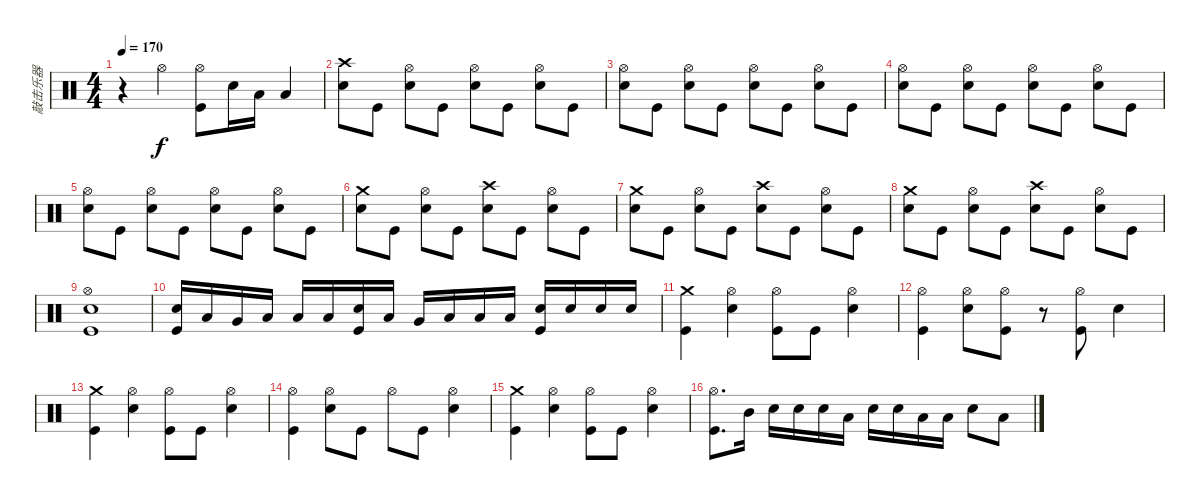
\track ("敲击乐器" "敲击乐器") {instrument percussion}
\staff {score}
\articulation defaults
\ts (4 4)
\tempo 170
\clef neutral
\ks c
r.4{dy f} "Hi-Hat (open)".4 ("Hi-Hat (open)" "Kick (hit)").8 "Snare (hit) 2".16 "Low Tom (hit)".16 "Low Floor Tom (hit)".4 |
("Crash high (hit)" "Snare (hit) 2").8 "Kick (hit)".8 ("Hi-Hat (open)" "Snare (hit) 2").8 "Kick (hit)".8 ("Hi-Hat (open)" "Snare (hit) 2").8 "Kick (hit)".8 ("Hi-Hat (open)" "Snare (hit) 2").8 "Kick (hit)".8 |
("Hi-Hat (open)" "Snare (hit) 2").8 "Kick (hit)".8 ("Hi-Hat (open)" "Snare (hit) 2").8 "Kick (hit)".8 ("Hi-Hat (open)" "Snare (hit) 2").8 "Kick (hit)".8 ("Hi-Hat (open)" "Snare (hit) 2").8 "Kick (hit)".8 |
("Hi-Hat (open)" "Snare (hit) 2").8 "Kick (hit)".8 ("Hi-Hat (open)" "Snare (hit) 2").8 "Kick (hit)".8 ("Hi-Hat (open)" "Snare (hit) 2").8 "Kick (hit)".8 ("Hi-Hat (open)" "Snare (hit) 2").8 "Kick (hit)".8 |
("Hi-Hat (open)" "Snare (hit) 2").8 "Kick (hit)".8 ("Hi-Hat (open)" "Snare (hit) 2").8 "Kick (hit)".8 ("Hi-Hat (open)" "Snare (hit) 2").8 "Kick (hit)".8 ("Hi-Hat (open)" "Snare (hit) 2").8 "Kick (hit)".8 |
("Crash medium (hit)" "Snare (hit) 2").8 "Kick (hit)".8 ("Hi-Hat (open)" "Snare (hit) 2").8 "Kick (hit)".8 ("Crash high (hit)" "Snare (hit) 2").8 "Kick (hit)".8 ("Hi-Hat (open)" "Snare (hit) 2").8 "Kick (hit)".8 |
("Crash medium (hit)" "Snare (hit) 2").8 "Kick (hit)".8 ("Hi-Hat (open)" "Snare (hit) 2").8 "Kick (hit)".8 ("Crash high (hit)" "Snare (hit) 2").8 "Kick (hit)".8 ("Hi-Hat (open)" "Snare (hit) 2").8 "Kick (hit)".8 |
("Crash medium (hit)" "Snare (hit) 2").8 "Kick (hit)".8 ("Hi-Hat (open)" "Snare (hit) 2").8 "Kick (hit)".8 ("Crash high (hit)" "Snare (hit) 2").8 "Kick (hit)".8 ("Hi-Hat (open)" "Snare (hit) 2").8 "Kick (hit)".8 |
("Hi-Hat (open)" "Snare (hit) 2" "Kick (hit)").1 |
("Snare (hit) 2" "Kick (hit)").16 "Low Tom (hit)".16 "Very Low Tom (hit)".16 "Low Floor Tom (hit)".16 "Low Floor Tom (hit)".16 "Low Floor Tom (hit)".16 ("Snare (hit) 2" "Kick (hit)").16 "Low Tom (hit)".16 "Very Low Tom (hit)".16 "Low Floor Tom (hit)".16 "Low Floor Tom (hit)".16 "Low Floor Tom (hit)".16 ("Snare (hit) 2" "Kick (hit)").16 "Snare (hit) 2".16 "Snare (hit) 2".16 "Snare (hit) 2".16 |
("Crash medium (hit)" "Kick (hit)").4 ("Hi-Hat (open)" "Snare (hit) 2").4 ("Hi-Hat (open)" "Kick (hit)").8 "Kick (hit)".8 ("Hi-Hat (open)" "Snare (hit) 2").4 |
("Hi-Hat (open)" "Kick (hit)").4 ("Hi-Hat (open)" "Snare (hit) 2").8 ("Hi-Hat (open)" "Kick (hit)").8 r.8 ("Hi-Hat (open)" "Kick (hit)").8 "Snare (hit) 2".4 |
("Crash medium (hit)" "Kick (hit)").4 ("Hi-Hat (open)" "Snare (hit) 2").4 ("Hi-Hat (open)" "Kick (hit)").8 "Kick (hit)".8 ("Hi-Hat (open)" "Snare (hit) 2").4 |
("Hi-Hat (open)" "Kick (hit)").4 ("Hi-Hat (open)" "Snare (hit) 2").8 "Kick (hit)".8 "Hi-Hat (open)".8 "Kick (hit)".8 ("Hi-Hat (open)" "Snare (hit) 2").4 |
("Crash medium (hit)" "Kick (hit)").4 ("Hi-Hat (open)" "Snare (hit) 2").4 ("Hi-Hat (open)" "Kick (hit)").8 "Kick (hit)".8 ("Hi-Hat (open)" "Snare (hit) 2").4 |
("Hi-Hat (open)" "Kick (hit)").8{d} "Mid Tom (hit)".16 "Snare (hit) 2".16 "Snare (hit) 2".16 "Snare (hit) 2".16 "Low Tom (hit)".16 "Snare (hit) 2".16 "Snare (hit) 2".16 "Low Tom (hit)".16 "Low Floor Tom (hit)".16 "Snare (hit) 2".8 "Low Tom (hit)".8
